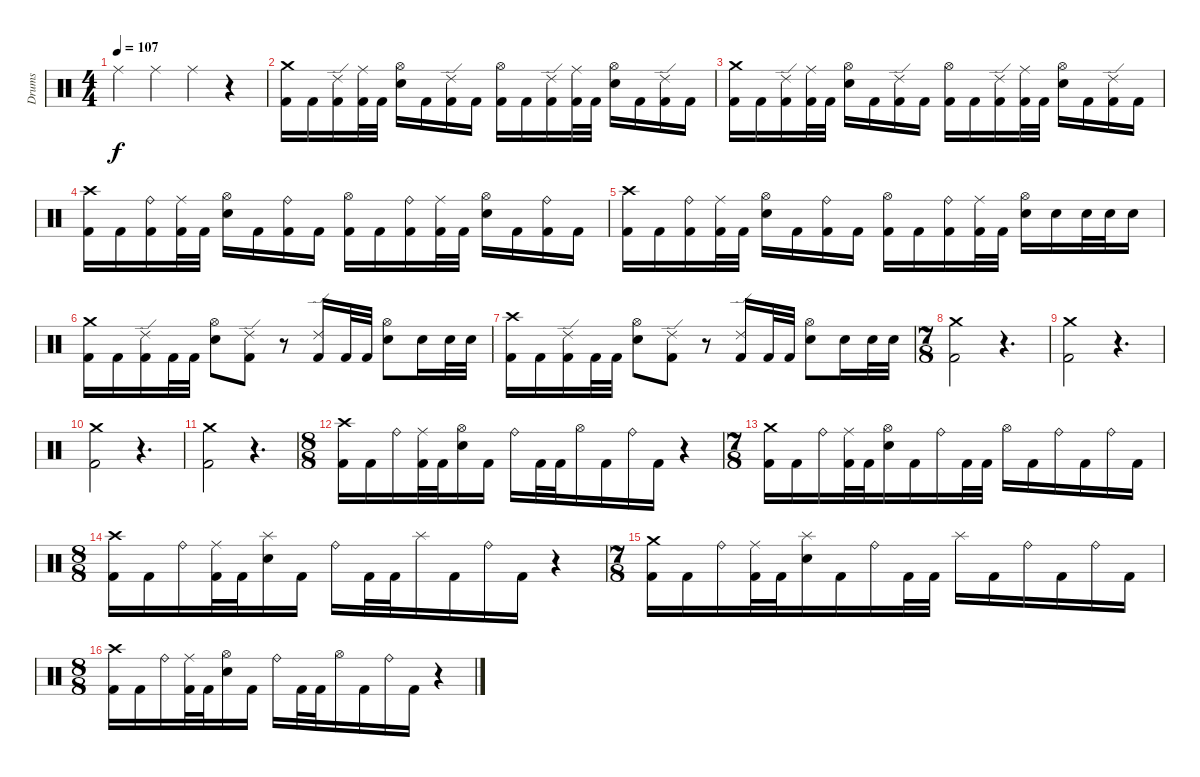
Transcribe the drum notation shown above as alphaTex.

\track ("Drums" "Drums") {instrument percussion}
\staff {score}
\articulation defaults
\ts (4 4)
\tempo 107
\clef neutral
\ks c "Ride (middle)".4{dy f} "Ride (middle)".4 "Ride (middle)".4
r.4 |
("Crash medium (hit)" "Kick (hit) 2").16 "Kick (hit) 2".16 ("Ride (edge) 2" "Kick (hit) 2").16 ("Ride (middle)" "Kick (hit) 2").32 "Kick (hit) 2".32 ("Hi-Hat (open)" "Snare (hit) 2").16 "Kick (hit) 2".16 ("Ride (edge) 2" "Kick (hit) 2").16 "Kick (hit) 2".16 ("Hi-Hat (open)" "Kick (hit) 2").16 "Kick (hit) 2".16 ("Ride (edge) 2" "Kick (hit) 2").16 ("Ride (middle)" "Kick (hit) 2").32 "Kick (hit) 2".32 ("Hi-Hat (open)" "Snare (hit) 2").16 "Kick (hit) 2".16 ("Ride (edge) 2" "Kick (hit) 2").16 "Kick (hit) 2".16 |
("Crash medium (hit)" "Kick (hit) 2").16 "Kick (hit) 2".16 ("Ride (edge) 2" "Kick (hit) 2").16 ("Ride (middle)" "Kick (hit) 2").32 "Kick (hit) 2".32 ("Hi-Hat (open)" "Snare (hit) 2").16 "Kick (hit) 2".16 ("Ride (edge) 2" "Kick (hit) 2").16 "Kick (hit) 2".16 ("Hi-Hat (open)" "Kick (hit) 2").16 "Kick (hit) 2".16 ("Ride (edge) 2" "Kick (hit) 2").16 ("Ride (middle)" "Kick (hit) 2").32 "Kick (hit) 2".32 ("Hi-Hat (open)" "Snare (hit) 2").16 "Kick (hit) 2".16 ("Ride (edge) 2" "Kick (hit) 2").16 "Kick (hit) 2".16 |
("Crash high (hit)" "Kick (hit) 2").16 "Kick (hit) 2".16 ("Ride (bell)" "Kick (hit) 2").16 ("Ride (middle)" "Kick (hit) 2").32 "Kick (hit) 2".32 ("Hi-Hat (open)" "Snare (hit) 2").16 "Kick (hit) 2".16 ("Ride (bell)" "Kick (hit) 2").16 "Kick (hit) 2".16 ("Hi-Hat (open)" "Kick (hit) 2").16 "Kick (hit) 2".16 ("Ride (bell)" "Kick (hit) 2").16 ("Ride (middle)" "Kick (hit) 2").32 "Kick (hit) 2".32 ("Hi-Hat (open)" "Snare (hit) 2").16 "Kick (hit) 2".16 ("Ride (bell)" "Kick (hit) 2").16 "Kick (hit) 2".16 |
("Crash high (hit)" "Kick (hit) 2").16 "Kick (hit) 2".16 ("Ride (bell)" "Kick (hit) 2").16 ("Ride (middle)" "Kick (hit) 2").32 "Kick (hit) 2".32 ("Hi-Hat (open)" "Snare (hit) 2").16 "Kick (hit) 2".16 ("Ride (bell)" "Kick (hit) 2").16 "Kick (hit) 2".16 ("Hi-Hat (open)" "Kick (hit) 2").16 "Kick (hit) 2".16 ("Ride (bell)" "Kick (hit) 2").16 ("Ride (middle)" "Kick (hit) 2").32 "Kick (hit) 2".32 ("Hi-Hat (open)" "Snare (hit) 2").16 "Electric Snare (hit)".16 "Electric Snare (hit)".32 "Electric Snare (hit)".32 "Electric Snare (hit)".16 |
("Crash medium (hit)" "Kick (hit) 2").16 "Kick (hit) 2".16 ("Ride (edge) 2" "Kick (hit) 2").16 "Kick (hit) 2".32 "Kick (hit) 2".32 ("Hi-Hat (open)" "Snare (hit) 2").8 ("Ride (edge) 2" "Kick (hit) 2").8 r.8 ("Ride (edge) 2" "Kick (hit) 2").16 "Kick (hit) 2".32 "Kick (hit) 2".32 ("Hi-Hat (open)" "Snare (hit) 2").8 "Electric Snare (hit)".16 "Electric Snare (hit)".32 "Electric Snare (hit)".32 |
("Crash high (hit)" "Kick (hit) 2").16 "Kick (hit) 2".16 ("Ride (edge) 2" "Kick (hit) 2").16 "Kick (hit) 2".32 "Kick (hit) 2".32 ("Hi-Hat (open)" "Snare (hit) 2").8 ("Ride (edge) 2" "Kick (hit) 2").8 r.8 ("Ride (edge) 2" "Kick (hit) 2").16 "Kick (hit) 2".32 "Kick (hit) 2".32 ("Hi-Hat (open)" "Snare (hit) 2").8 "Electric Snare (hit)".16 "Electric Snare (hit)".32 "Electric Snare (hit)".32 |
\ts (7 8)
("Crash medium (hit)" "Kick (hit) 2").2 r.4{d} |
("Crash medium (hit)" "Kick (hit) 2").2 r.4{d} |
("Crash medium (hit)" "Kick (hit) 2").2 r.4{d} |
("Crash medium (hit)" "Kick (hit) 2").2 r.4{d} |
\ts (8 8)
("Crash high (hit)" "Kick (hit) 2").16 "Kick (hit) 2".16 "Ride (bell)".16 ("Ride (middle)" "Kick (hit) 2").32 "Kick (hit) 2".32 ("Hi-Hat (open)" "Snare (hit) 2").16 "Kick (hit) 2".16 "Ride (bell)".16 "Kick (hit) 2".32 "Kick (hit) 2".32 "Hi-Hat (open)".16 "Kick (hit) 2".16 "Ride (bell)".16 "Kick (hit) 2".16 r.4 |
\ts (7 8)
("Crash medium (hit)" "Kick (hit) 2").16 "Kick (hit) 2".16 "Ride (bell)".16 ("Ride (middle)" "Kick (hit) 2").32 "Kick (hit) 2".32 ("Hi-Hat (open)" "Snare (hit) 2").16 "Kick (hit) 2".16 "Ride (bell)".16 "Kick (hit) 2".32 "Kick (hit) 2".32 "Hi-Hat (open)".16 "Kick (hit) 2".16 "Ride (bell)".16 "Kick (hit) 2".16 "Ride (bell)".16 "Kick (hit) 2".16 |
\ts (8 8)
("Crash high (hit)" "Kick (hit) 2").16 "Kick (hit) 2".16 "Ride (bell)".16 ("Ride (middle)" "Kick (hit) 2").32 "Kick (hit) 2".32 ("Splash (hit)" "Snare (hit) 2").16 "Kick (hit) 2".16 "Ride (bell)".16 "Kick (hit) 2".32 "Kick (hit) 2".32 "Splash (hit)".16 "Kick (hit) 2".16 "Ride (bell)".16 "Kick (hit) 2".16 r.4 |
\ts (7 8)
("Crash medium (hit)" "Kick (hit) 2").16 "Kick (hit) 2".16 "Ride (bell)".16 ("Ride (middle)" "Kick (hit) 2").32 "Kick (hit) 2".32 ("Splash (hit)" "Snare (hit) 2").16 "Kick (hit) 2".16 "Ride (bell)".16 "Kick (hit) 2".32 "Kick (hit) 2".32 "Splash (hit)".16 "Kick (hit) 2".16 "Ride (bell)".16 "Kick (hit) 2".16 "Ride (bell)".16 "Kick (hit) 2".16 |
\ts (8 8)
("Crash high (hit)" "Kick (hit) 2").16 "Kick (hit) 2".16 "Ride (bell)".16 ("Ride (middle)" "Kick (hit) 2").32 "Kick (hit) 2".32 ("Hi-Hat (open)" "Snare (hit) 2").16 "Kick (hit) 2".16 "Ride (bell)".16 "Kick (hit) 2".32 "Kick (hit) 2".32 "Hi-Hat (open)".16 "Kick (hit) 2".16 "Ride (bell)".16 "Kick (hit) 2".16 r.4
